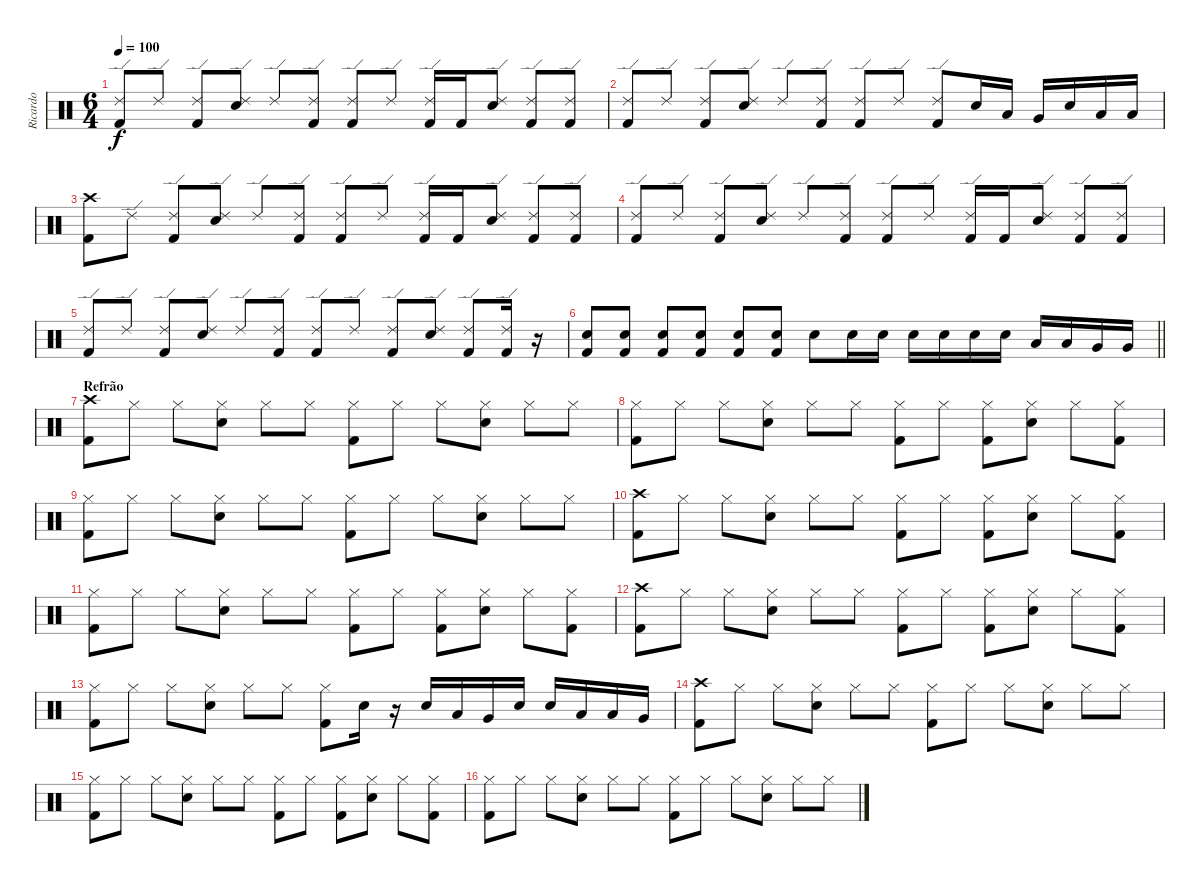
\track ("Ricardo" "Ricardo") {instrument percussion}
\staff {score}
\articulation defaults
\ts (6 4)
\tempo 100
\clef neutral
\ks c
("Ride (edge) 2" "Kick (hit) 2").8{dy f} "Ride (edge) 2".8 ("Ride (edge) 2" "Kick (hit) 2").8 ("Ride (edge) 2" "Electric Snare (hit)").8 "Ride (edge) 2".8 ("Ride (edge) 2" "Kick (hit) 2").8 ("Ride (edge) 2" "Kick (hit) 2").8 "Ride (edge) 2".8 ("Ride (edge) 2" "Kick (hit) 2").16 "Kick (hit) 2".16 ("Ride (edge) 2" "Electric Snare (hit)").8 ("Ride (edge) 2" "Kick (hit) 2").8 ("Ride (edge) 2" "Kick (hit) 2").8 |
("Ride (edge) 2" "Kick (hit) 2").8 "Ride (edge) 2".8 ("Ride (edge) 2" "Kick (hit) 2").8 ("Ride (edge) 2" "Electric Snare (hit)").8 "Ride (edge) 2".8 ("Ride (edge) 2" "Kick (hit) 2").8 ("Ride (edge) 2" "Kick (hit) 2").8 "Ride (edge) 2".8 ("Ride (edge) 2" "Kick (hit) 2").8 "Electric Snare (hit)".16 "Low Tom (hit)".16 "Very Low Tom (hit)".16 "Electric Snare (hit)".16 "Low Tom (hit)".16 "Low Floor Tom (hit)".16 |
("Crash high (hit)" "Kick (hit) 2").8 "Ride (edge) 2".8 ("Ride (edge) 2" "Kick (hit) 2").8 ("Ride (edge) 2" "Electric Snare (hit)").8 "Ride (edge) 2".8 ("Ride (edge) 2" "Kick (hit) 2").8 ("Ride (edge) 2" "Kick (hit) 2").8 "Ride (edge) 2".8 ("Ride (edge) 2" "Kick (hit) 2").16 "Kick (hit) 2".16 ("Ride (edge) 2" "Electric Snare (hit)").8 ("Ride (edge) 2" "Kick (hit) 2").8 ("Ride (edge) 2" "Kick (hit) 2").8 |
("Ride (edge) 2" "Kick (hit) 2").8 "Ride (edge) 2".8 ("Ride (edge) 2" "Kick (hit) 2").8 ("Ride (edge) 2" "Electric Snare (hit)").8 "Ride (edge) 2".8 ("Ride (edge) 2" "Kick (hit) 2").8 ("Ride (edge) 2" "Kick (hit) 2").8 "Ride (edge) 2".8 ("Ride (edge) 2" "Kick (hit) 2").16 "Kick (hit) 2".16 ("Ride (edge) 2" "Electric Snare (hit)").8 ("Ride (edge) 2" "Kick (hit) 2").8 ("Ride (edge) 2" "Kick (hit) 2").8 |
("Ride (edge) 2" "Kick (hit) 2").8 "Ride (edge) 2".8 ("Ride (edge) 2" "Kick (hit) 2").8 ("Ride (edge) 2" "Electric Snare (hit)").8 "Ride (edge) 2".8 ("Ride (edge) 2" "Kick (hit) 2").8 ("Ride (edge) 2" "Kick (hit) 2").8 "Ride (edge) 2".8 ("Ride (edge) 2" "Kick (hit) 2").8 ("Ride (edge) 2" "Electric Snare (hit)").8 ("Ride (edge) 2" "Kick (hit) 2").8 ("Ride (edge) 2" "Kick (hit) 2").16 r.16{volume 0} |
\barLineRight lightlight
("Electric Snare (hit)" "Kick (hit) 2").8{volume 16} ("Electric Snare (hit)" "Kick (hit) 2").8 ("Electric Snare (hit)" "Kick (hit) 2").8 ("Electric Snare (hit)" "Kick (hit) 2").8 ("Electric Snare (hit)" "Kick (hit) 2").8 ("Electric Snare (hit)" "Kick (hit) 2").8 "Electric Snare (hit)".8 "Electric Snare (hit)".16 "Electric Snare (hit)".16 "Electric Snare (hit)".16 "Electric Snare (hit)".16 "Electric Snare (hit)".16 "Electric Snare (hit)".16 "Low Tom (hit)".16 "Low Tom (hit)".16 "Very Low Tom (hit)".16 "Very Low Tom (hit)".16 |
\section ("" "Refrão")
("Crash high (hit)" "Kick (hit) 2").8 "Hi-Hat (closed)".8 "Hi-Hat (closed)".8 ("Hi-Hat (closed)" "Electric Snare (hit)").8 "Hi-Hat (closed)".8 "Hi-Hat (closed)".8 ("Hi-Hat (closed)" "Kick (hit) 2").8 "Hi-Hat (closed)".8 "Hi-Hat (closed)".8 ("Hi-Hat (closed)" "Electric Snare (hit)").8 "Hi-Hat (closed)".8 "Hi-Hat (closed)".8 |
("Hi-Hat (closed)" "Kick (hit) 2").8 "Hi-Hat (closed)".8 "Hi-Hat (closed)".8 ("Hi-Hat (closed)" "Electric Snare (hit)").8 "Hi-Hat (closed)".8 "Hi-Hat (closed)".8 ("Hi-Hat (closed)" "Kick (hit) 2").8 "Hi-Hat (closed)".8 ("Hi-Hat (closed)" "Kick (hit) 2").8 ("Hi-Hat (closed)" "Electric Snare (hit)").8 "Hi-Hat (closed)".8 ("Hi-Hat (closed)" "Kick (hit) 2").8 |
("Hi-Hat (closed)" "Kick (hit) 2").8 "Hi-Hat (closed)".8 "Hi-Hat (closed)".8 ("Hi-Hat (closed)" "Electric Snare (hit)").8 "Hi-Hat (closed)".8 "Hi-Hat (closed)".8 ("Hi-Hat (closed)" "Kick (hit) 2").8 "Hi-Hat (closed)".8 "Hi-Hat (closed)".8 ("Hi-Hat (closed)" "Electric Snare (hit)").8 "Hi-Hat (closed)".8 "Hi-Hat (closed)".8 |
("Crash high (hit)" "Kick (hit) 2").8 "Hi-Hat (closed)".8 "Hi-Hat (closed)".8 ("Hi-Hat (closed)" "Electric Snare (hit)").8 "Hi-Hat (closed)".8 "Hi-Hat (closed)".8 ("Hi-Hat (closed)" "Kick (hit) 2").8 "Hi-Hat (closed)".8 ("Hi-Hat (closed)" "Kick (hit) 2").8 ("Hi-Hat (closed)" "Electric Snare (hit)").8 "Hi-Hat (closed)".8 ("Hi-Hat (closed)" "Kick (hit) 2").8 |
("Hi-Hat (closed)" "Kick (hit) 2").8 "Hi-Hat (closed)".8 "Hi-Hat (closed)".8 ("Hi-Hat (closed)" "Electric Snare (hit)").8 "Hi-Hat (closed)".8 "Hi-Hat (closed)".8 ("Hi-Hat (closed)" "Kick (hit) 2").8 "Hi-Hat (closed)".8 ("Hi-Hat (closed)" "Kick (hit) 2").8 ("Hi-Hat (closed)" "Electric Snare (hit)").8 "Hi-Hat (closed)".8 ("Hi-Hat (closed)" "Kick (hit) 2").8 |
("Crash high (hit)" "Kick (hit) 2").8 "Hi-Hat (closed)".8 "Hi-Hat (closed)".8 ("Hi-Hat (closed)" "Electric Snare (hit)").8 "Hi-Hat (closed)".8 "Hi-Hat (closed)".8 ("Hi-Hat (closed)" "Kick (hit) 2").8 "Hi-Hat (closed)".8 ("Hi-Hat (closed)" "Kick (hit) 2").8 ("Hi-Hat (closed)" "Electric Snare (hit)").8 "Hi-Hat (closed)".8 ("Hi-Hat (closed)" "Kick (hit) 2").8 |
("Hi-Hat (closed)" "Kick (hit) 2").8 "Hi-Hat (closed)".8 "Hi-Hat (closed)".8 ("Hi-Hat (closed)" "Electric Snare (hit)").8 "Hi-Hat (closed)".8 "Hi-Hat (closed)".8 ("Hi-Hat (closed)" "Kick (hit) 2").8 "Electric Snare (hit)".16 r.16 "Electric Snare (hit)".16 "Low Tom (hit)".16 "Very Low Tom (hit)".16 "Electric Snare (hit)".16 "Electric Snare (hit)".16 "Low Tom (hit)".16 "Low Tom (hit)".16 "Very Low Tom (hit)".16 |
("Crash high (hit)" "Kick (hit) 2").8 "Hi-Hat (closed)".8 "Hi-Hat (closed)".8 ("Hi-Hat (closed)" "Electric Snare (hit)").8 "Hi-Hat (closed)".8 "Hi-Hat (closed)".8 ("Hi-Hat (closed)" "Kick (hit) 2").8 "Hi-Hat (closed)".8 "Hi-Hat (closed)".8 ("Hi-Hat (closed)" "Electric Snare (hit)").8 "Hi-Hat (closed)".8 "Hi-Hat (closed)".8 |
("Hi-Hat (closed)" "Kick (hit) 2").8 "Hi-Hat (closed)".8 "Hi-Hat (closed)".8 ("Hi-Hat (closed)" "Electric Snare (hit)").8 "Hi-Hat (closed)".8 "Hi-Hat (closed)".8 ("Hi-Hat (closed)" "Kick (hit) 2").8 "Hi-Hat (closed)".8 ("Hi-Hat (closed)" "Kick (hit) 2").8 ("Hi-Hat (closed)" "Electric Snare (hit)").8 "Hi-Hat (closed)".8 ("Hi-Hat (closed)" "Kick (hit) 2").8 |
("Hi-Hat (closed)" "Kick (hit) 2").8 "Hi-Hat (closed)".8 "Hi-Hat (closed)".8 ("Hi-Hat (closed)" "Electric Snare (hit)").8 "Hi-Hat (closed)".8 "Hi-Hat (closed)".8 ("Hi-Hat (closed)" "Kick (hit) 2").8 "Hi-Hat (closed)".8 "Hi-Hat (closed)".8 ("Hi-Hat (closed)" "Electric Snare (hit)").8 "Hi-Hat (closed)".8 "Hi-Hat (closed)".8
